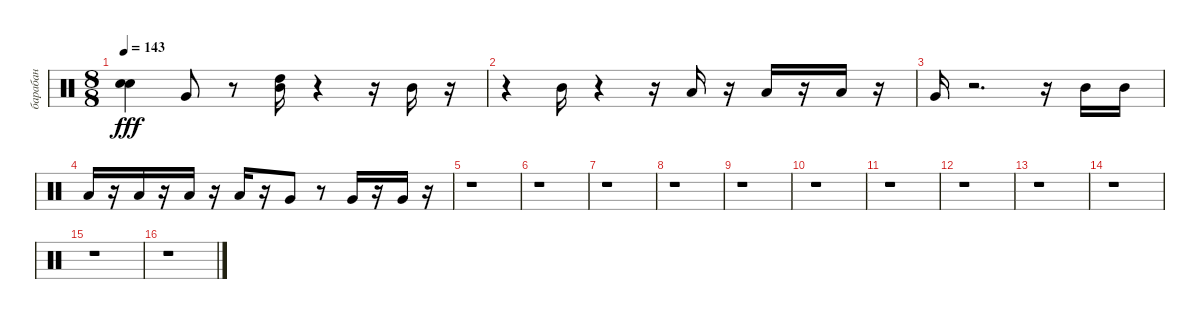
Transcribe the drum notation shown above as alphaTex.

\track ("барабан" "барабан") {instrument percussion}
\staff {score}
\articulation defaults
\ts (8 8)
\tempo 143
\clef neutral
\ks c
("Snare (hit) 2" "Snare (hit) 2").4{dy fff} "Very Low Tom (hit)".8 r.8 ("Mid Tom (hit)" "High Tom (hit)").16 r.4 r.16 "Mid Tom (hit)".16 r.16 |
r.4 "Mid Tom (hit)".16 r.4 r.16 "Low Tom (hit)".16 r.16 "Low Tom (hit)".16 r.16 "Low Tom (hit)".16 r.16 |
"Very Low Tom (hit)".16 r.2{d} r.16 "Mid Tom (hit)".16 "Mid Tom (hit)".16 |
"Low Tom (hit)".16 r.16 "Low Tom (hit)".16 r.16 "Low Tom (hit)".16 r.16 "Low Tom (hit)".16 r.16 "Very Low Tom (hit)".8 r.8 "Very Low Tom (hit)".16 r.16 "Very Low Tom (hit)".16 r.16 |
r.1 |
r.1 |
r.1 |
r.1 |
r.1 |
r.1 |
r.1 |
r.1 |
r.1 |
r.1 |
r.1 |
r.1
